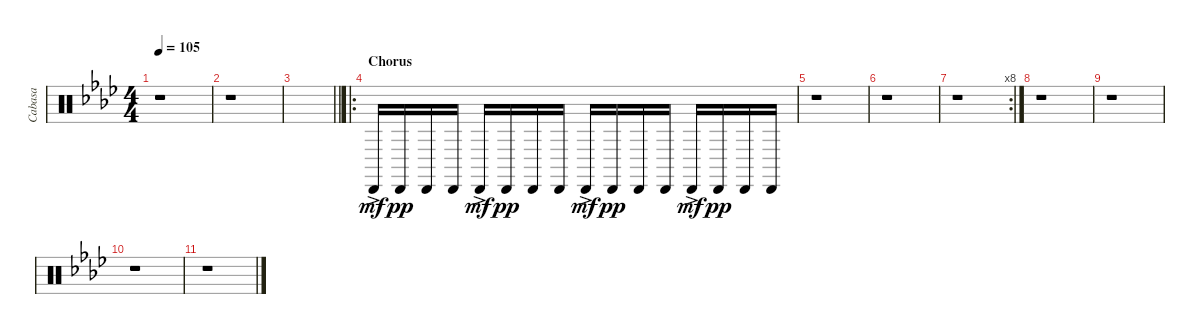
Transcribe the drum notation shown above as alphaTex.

\track ("Cabasa" "Cabasa") {instrument percussion}
\staff {score}
\articulation defaults
\ts (4 4)
\tempo 105
\clef neutral
\ks ab
r.1{dy pp} |
r.1 |
\barLineRight lightlight
|
\ro
\section ("" "Chorus")
"Cabasa (hit)"{ac}.16{dy mf} "Cabasa (hit)".16{dy pp} "Cabasa (hit)".16 "Cabasa (hit)".16 "Cabasa (hit)"{ac}.16{dy mf} "Cabasa (hit)".16{dy pp} "Cabasa (hit)".16 "Cabasa (hit)".16 "Cabasa (hit)"{ac}.16{dy mf} "Cabasa (hit)".16{dy pp} "Cabasa (hit)".16 "Cabasa (hit)".16 "Cabasa (hit)"{ac}.16{dy mf} "Cabasa (hit)".16{dy pp} "Cabasa (hit)".16 "Cabasa (hit)".16 |
r.1 |
r.1 |
\rc 8
r.1 |
r.1 |
r.1 |
r.1 |
r.1
